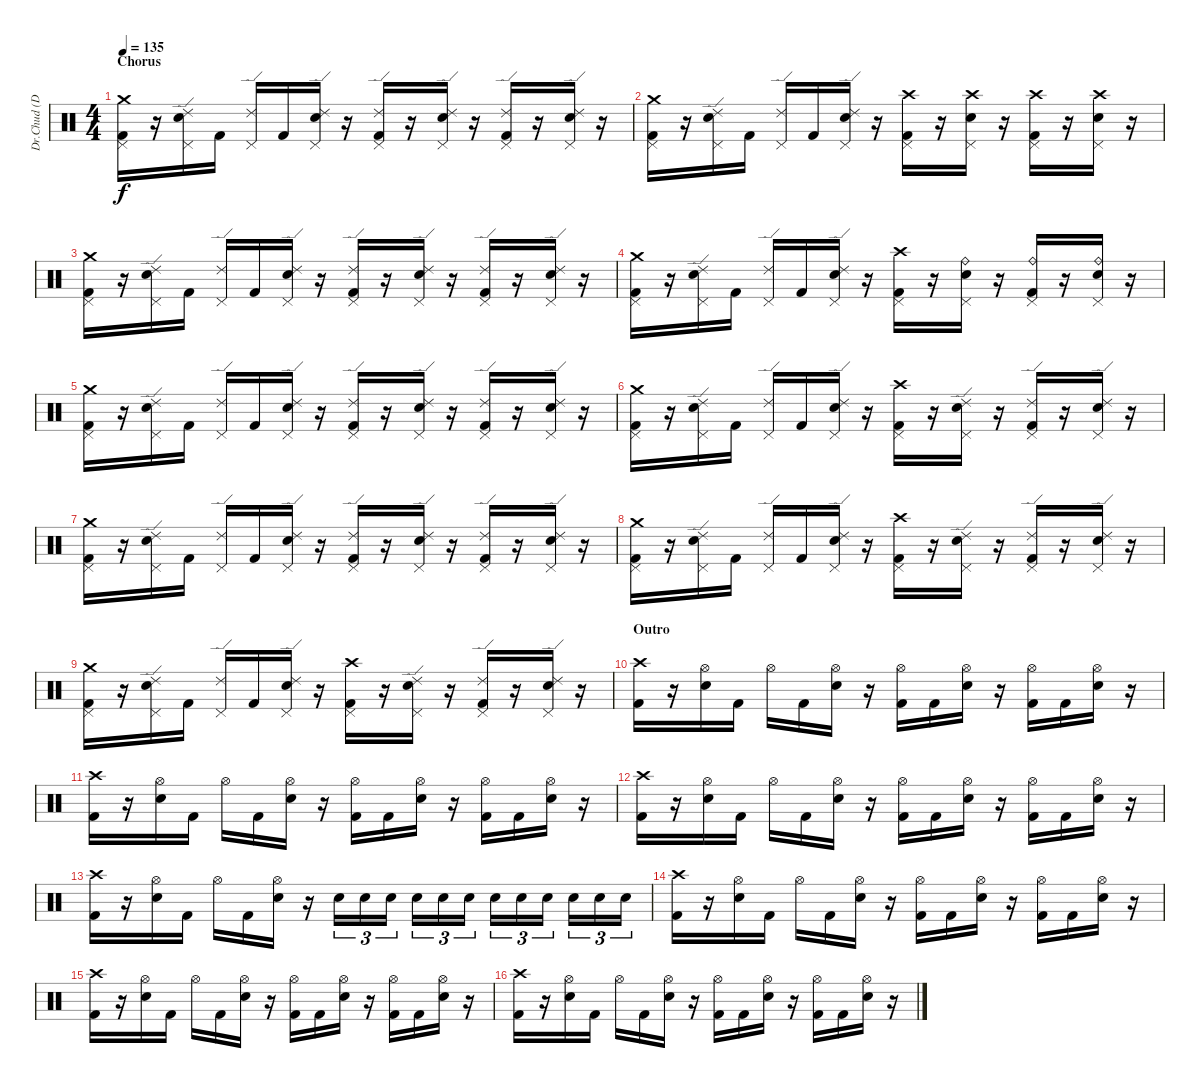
\track ("Dr.Chud (Drums)" "Dr.Chud (D") {instrument percussion}
\staff {score}
\articulation defaults
\ts (4 4)
\section ("" "Chorus")
\tempo 135
\clef neutral
\ks c
("Crash medium (hit)" "Pedal Hi-Hat (hit)" "Kick (hit) 2").16{dy f} r.16 ("Ride (edge) 2" "Snare (hit) 2" "Pedal Hi-Hat (hit)").16 "Kick (hit) 2".16 ("Ride (edge) 2" "Pedal Hi-Hat (hit)").16 "Kick (hit) 2".16 ("Ride (edge) 2" "Snare (hit) 2" "Pedal Hi-Hat (hit)").16 r.16 ("Ride (edge) 2" "Pedal Hi-Hat (hit)" "Kick (hit) 2").16 r.16 ("Ride (edge) 2" "Snare (hit) 2" "Pedal Hi-Hat (hit)").16 r.16 ("Ride (edge) 2" "Pedal Hi-Hat (hit)" "Kick (hit) 2").16 r.16 ("Ride (edge) 2" "Snare (hit) 2" "Pedal Hi-Hat (hit)").16 r.16 |
("Crash medium (hit)" "Pedal Hi-Hat (hit)" "Kick (hit) 2").16 r.16 ("Ride (edge) 2" "Snare (hit) 2" "Pedal Hi-Hat (hit)").16 "Kick (hit) 2".16 ("Ride (edge) 2" "Pedal Hi-Hat (hit)").16 "Kick (hit) 2".16 ("Ride (edge) 2" "Snare (hit) 2" "Pedal Hi-Hat (hit)").16 r.16 ("Crash high (hit)" "Pedal Hi-Hat (hit)" "Kick (hit) 2").16 r.16 ("Crash high (hit)" "Snare (hit) 2" "Pedal Hi-Hat (hit)").16 r.16 ("Crash high (hit)" "Pedal Hi-Hat (hit)" "Kick (hit) 2").16 r.16 ("Crash high (hit)" "Snare (hit) 2" "Pedal Hi-Hat (hit)").16 r.16 |
("Crash medium (hit)" "Pedal Hi-Hat (hit)" "Kick (hit) 2").16 r.16 ("Ride (edge) 2" "Snare (hit) 2" "Pedal Hi-Hat (hit)").16 "Kick (hit) 2".16 ("Ride (edge) 2" "Pedal Hi-Hat (hit)").16 "Kick (hit) 2".16 ("Ride (edge) 2" "Snare (hit) 2" "Pedal Hi-Hat (hit)").16 r.16 ("Ride (edge) 2" "Pedal Hi-Hat (hit)" "Kick (hit) 2").16 r.16 ("Ride (edge) 2" "Snare (hit) 2" "Pedal Hi-Hat (hit)").16 r.16 ("Ride (edge) 2" "Pedal Hi-Hat (hit)" "Kick (hit) 2").16 r.16 ("Ride (edge) 2" "Snare (hit) 2" "Pedal Hi-Hat (hit)").16 r.16 |
("Crash medium (hit)" "Pedal Hi-Hat (hit)" "Kick (hit) 2").16 r.16 ("Ride (edge) 2" "Snare (hit) 2" "Pedal Hi-Hat (hit)").16 "Kick (hit) 2".16 ("Ride (edge) 2" "Pedal Hi-Hat (hit)").16 "Kick (hit) 2".16 ("Ride (edge) 2" "Snare (hit) 2" "Pedal Hi-Hat (hit)").16 r.16 ("Crash high (hit)" "Pedal Hi-Hat (hit)" "Kick (hit) 2").16 r.16 ("Ride (bell)" "Snare (hit) 2" "Pedal Hi-Hat (hit)").16 r.16 ("Ride (bell)" "Pedal Hi-Hat (hit)" "Kick (hit) 2").16 r.16 ("Ride (bell)" "Snare (hit) 2" "Pedal Hi-Hat (hit)").16 r.16 |
("Crash medium (hit)" "Pedal Hi-Hat (hit)" "Kick (hit) 2").16 r.16 ("Ride (edge) 2" "Snare (hit) 2" "Pedal Hi-Hat (hit)").16 "Kick (hit) 2".16 ("Ride (edge) 2" "Pedal Hi-Hat (hit)").16 "Kick (hit) 2".16 ("Ride (edge) 2" "Snare (hit) 2" "Pedal Hi-Hat (hit)").16 r.16 ("Ride (edge) 2" "Pedal Hi-Hat (hit)" "Kick (hit) 2").16 r.16 ("Ride (edge) 2" "Snare (hit) 2" "Pedal Hi-Hat (hit)").16 r.16 ("Ride (edge) 2" "Pedal Hi-Hat (hit)" "Kick (hit) 2").16 r.16 ("Ride (edge) 2" "Snare (hit) 2" "Pedal Hi-Hat (hit)").16 r.16 |
("Crash medium (hit)" "Pedal Hi-Hat (hit)" "Kick (hit) 2").16 r.16 ("Ride (edge) 2" "Snare (hit) 2" "Pedal Hi-Hat (hit)").16 "Kick (hit) 2".16 ("Ride (edge) 2" "Pedal Hi-Hat (hit)").16 "Kick (hit) 2".16 ("Ride (edge) 2" "Snare (hit) 2" "Pedal Hi-Hat (hit)").16 r.16 ("Crash high (hit)" "Pedal Hi-Hat (hit)" "Kick (hit) 2").16 r.16 ("Ride (edge) 2" "Snare (hit) 2" "Pedal Hi-Hat (hit)").16 r.16 ("Ride (edge) 2" "Pedal Hi-Hat (hit)" "Kick (hit) 2").16 r.16 ("Ride (edge) 2" "Snare (hit) 2" "Pedal Hi-Hat (hit)").16 r.16 |
("Crash medium (hit)" "Pedal Hi-Hat (hit)" "Kick (hit) 2").16 r.16 ("Ride (edge) 2" "Snare (hit) 2" "Pedal Hi-Hat (hit)").16 "Kick (hit) 2".16 ("Ride (edge) 2" "Pedal Hi-Hat (hit)").16 "Kick (hit) 2".16 ("Ride (edge) 2" "Snare (hit) 2" "Pedal Hi-Hat (hit)").16 r.16 ("Ride (edge) 2" "Pedal Hi-Hat (hit)" "Kick (hit) 2").16 r.16 ("Ride (edge) 2" "Snare (hit) 2" "Pedal Hi-Hat (hit)").16 r.16 ("Ride (edge) 2" "Pedal Hi-Hat (hit)" "Kick (hit) 2").16 r.16 ("Ride (edge) 2" "Snare (hit) 2" "Pedal Hi-Hat (hit)").16 r.16 |
("Crash medium (hit)" "Pedal Hi-Hat (hit)" "Kick (hit) 2").16 r.16 ("Ride (edge) 2" "Snare (hit) 2" "Pedal Hi-Hat (hit)").16 "Kick (hit) 2".16 ("Ride (edge) 2" "Pedal Hi-Hat (hit)").16 "Kick (hit) 2".16 ("Ride (edge) 2" "Snare (hit) 2" "Pedal Hi-Hat (hit)").16 r.16 ("Crash high (hit)" "Pedal Hi-Hat (hit)" "Kick (hit) 2").16 r.16 ("Ride (edge) 2" "Snare (hit) 2" "Pedal Hi-Hat (hit)").16 r.16 ("Ride (edge) 2" "Pedal Hi-Hat (hit)" "Kick (hit) 2").16 r.16 ("Ride (edge) 2" "Snare (hit) 2" "Pedal Hi-Hat (hit)").16 r.16 |
("Crash medium (hit)" "Pedal Hi-Hat (hit)" "Kick (hit) 2").16 r.16 ("Ride (edge) 2" "Snare (hit) 2" "Pedal Hi-Hat (hit)").16 "Kick (hit) 2".16 ("Ride (edge) 2" "Pedal Hi-Hat (hit)").16 "Kick (hit) 2".16 ("Ride (edge) 2" "Snare (hit) 2" "Pedal Hi-Hat (hit)").16 r.16 ("Crash high (hit)" "Pedal Hi-Hat (hit)" "Kick (hit) 2").16 r.16 ("Ride (edge) 2" "Snare (hit) 2" "Pedal Hi-Hat (hit)").16 r.16 ("Ride (edge) 2" "Pedal Hi-Hat (hit)" "Kick (hit) 2").16 r.16 ("Ride (edge) 2" "Snare (hit) 2" "Pedal Hi-Hat (hit)").16 r.16 |
\section ("" "Outro")
("Crash high (hit)" "Kick (hit) 2").16 r.16 ("Hi-Hat (open)" "Snare (hit) 2").16 "Kick (hit) 2".16 "Hi-Hat (open)".16 "Kick (hit) 2".16 ("Hi-Hat (open)" "Snare (hit) 2").16 r.16 ("Hi-Hat (open)" "Kick (hit) 2").16 "Kick (hit) 2".16 ("Hi-Hat (open)" "Snare (hit) 2").16 r.16 ("Hi-Hat (open)" "Kick (hit) 2").16 "Kick (hit) 2".16 ("Hi-Hat (open)" "Snare (hit) 2").16 r.16 |
("Crash high (hit)" "Kick (hit) 2").16 r.16 ("Hi-Hat (open)" "Snare (hit) 2").16 "Kick (hit) 2".16 "Hi-Hat (open)".16 "Kick (hit) 2".16 ("Hi-Hat (open)" "Snare (hit) 2").16 r.16 ("Hi-Hat (open)" "Kick (hit) 2").16 "Kick (hit) 2".16 ("Hi-Hat (open)" "Snare (hit) 2").16 r.16 ("Hi-Hat (open)" "Kick (hit) 2").16 "Kick (hit) 2".16 ("Hi-Hat (open)" "Snare (hit) 2").16 r.16 |
("Crash high (hit)" "Kick (hit) 2").16 r.16 ("Hi-Hat (open)" "Snare (hit) 2").16 "Kick (hit) 2".16 "Hi-Hat (open)".16 "Kick (hit) 2".16 ("Hi-Hat (open)" "Snare (hit) 2").16 r.16 ("Hi-Hat (open)" "Kick (hit) 2").16 "Kick (hit) 2".16 ("Hi-Hat (open)" "Snare (hit) 2").16 r.16 ("Hi-Hat (open)" "Kick (hit) 2").16 "Kick (hit) 2".16 ("Hi-Hat (open)" "Snare (hit) 2").16 r.16 |
("Crash high (hit)" "Kick (hit) 2").16 r.16 ("Hi-Hat (open)" "Snare (hit) 2").16 "Kick (hit) 2".16 "Hi-Hat (open)".16 "Kick (hit) 2".16 ("Hi-Hat (open)" "Snare (hit) 2").16 r.16 "Snare (hit) 2".16{tu (3 2)} "Snare (hit) 2".16{tu (3 2)} "Snare (hit) 2".16{tu (3 2)} "Snare (hit) 2".16{tu (3 2)} "Snare (hit) 2".16{tu (3 2)} "Snare (hit) 2".16{tu (3 2)} "Snare (hit) 2".16{tu (3 2)} "Snare (hit) 2".16{tu (3 2)} "Snare (hit) 2".16{tu (3 2)} "Snare (hit) 2".16{tu (3 2)} "Snare (hit) 2".16{tu (3 2)} "Snare (hit) 2".16{tu (3 2)} |
("Crash high (hit)" "Kick (hit) 2").16 r.16 ("Hi-Hat (open)" "Snare (hit) 2").16 "Kick (hit) 2".16 "Hi-Hat (open)".16 "Kick (hit) 2".16 ("Hi-Hat (open)" "Snare (hit) 2").16 r.16 ("Hi-Hat (open)" "Kick (hit) 2").16 "Kick (hit) 2".16 ("Hi-Hat (open)" "Snare (hit) 2").16 r.16 ("Hi-Hat (open)" "Kick (hit) 2").16 "Kick (hit) 2".16 ("Hi-Hat (open)" "Snare (hit) 2").16 r.16 |
("Crash high (hit)" "Kick (hit) 2").16 r.16 ("Hi-Hat (open)" "Snare (hit) 2").16 "Kick (hit) 2".16 "Hi-Hat (open)".16 "Kick (hit) 2".16 ("Hi-Hat (open)" "Snare (hit) 2").16 r.16 ("Hi-Hat (open)" "Kick (hit) 2").16 "Kick (hit) 2".16 ("Hi-Hat (open)" "Snare (hit) 2").16 r.16 ("Hi-Hat (open)" "Kick (hit) 2").16 "Kick (hit) 2".16 ("Hi-Hat (open)" "Snare (hit) 2").16 r.16 |
("Crash high (hit)" "Kick (hit) 2").16 r.16 ("Hi-Hat (open)" "Snare (hit) 2").16 "Kick (hit) 2".16 "Hi-Hat (open)".16 "Kick (hit) 2".16 ("Hi-Hat (open)" "Snare (hit) 2").16 r.16 ("Hi-Hat (open)" "Kick (hit) 2").16 "Kick (hit) 2".16 ("Hi-Hat (open)" "Snare (hit) 2").16 r.16 ("Hi-Hat (open)" "Kick (hit) 2").16 "Kick (hit) 2".16 ("Hi-Hat (open)" "Snare (hit) 2").16 r.16
